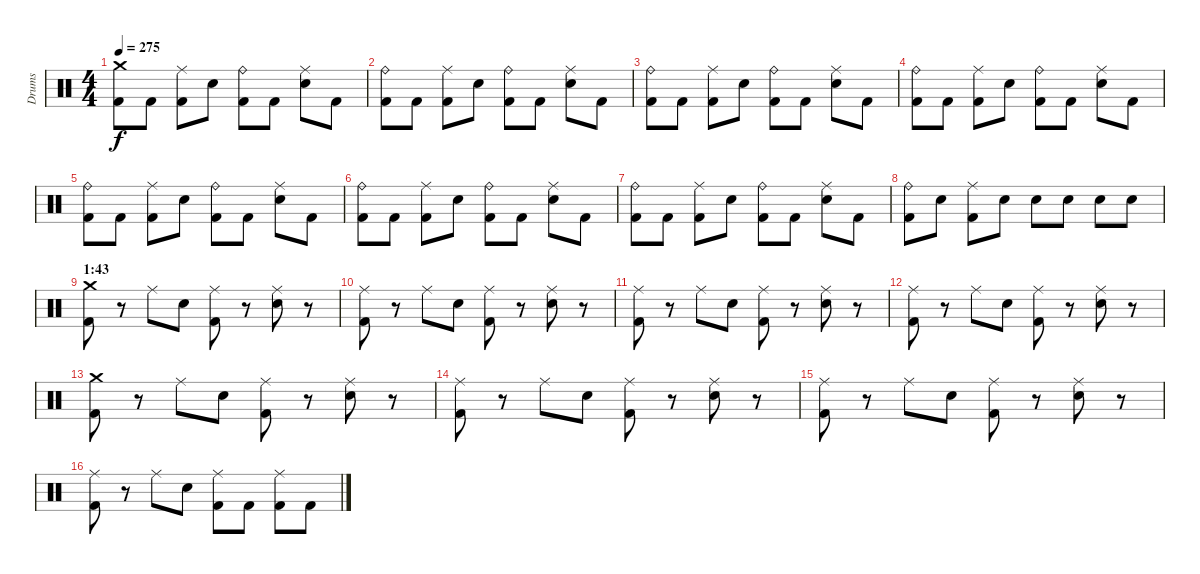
\track ("Drums" "Drums") {instrument percussion}
\staff {score}
\articulation defaults
\ts (4 4)
\tempo 275
\clef neutral
\ks c
("Crash medium (hit)" "Kick (hit) 2").8{dy f} "Kick (hit) 2".8 ("Ride (middle)" "Kick (hit) 2").8 "Electric Snare (hit)".8 ("Ride (bell)" "Kick (hit) 2").8 "Kick (hit) 2".8 ("Ride (middle)" "Electric Snare (hit)").8 "Kick (hit) 2".8 |
("Ride (bell)" "Kick (hit) 2").8 "Kick (hit) 2".8 ("Ride (middle)" "Kick (hit) 2").8 "Electric Snare (hit)".8 ("Ride (bell)" "Kick (hit) 2").8 "Kick (hit) 2".8 ("Ride (middle)" "Electric Snare (hit)").8 "Kick (hit) 2".8 |
("Ride (bell)" "Kick (hit) 2").8 "Kick (hit) 2".8 ("Ride (middle)" "Kick (hit) 2").8 "Electric Snare (hit)".8 ("Ride (bell)" "Kick (hit) 2").8 "Kick (hit) 2".8 ("Ride (middle)" "Electric Snare (hit)").8 "Kick (hit) 2".8 |
("Ride (bell)" "Kick (hit) 2").8 "Kick (hit) 2".8 ("Ride (middle)" "Kick (hit) 2").8 "Electric Snare (hit)".8 ("Ride (bell)" "Kick (hit) 2").8 "Kick (hit) 2".8 ("Ride (middle)" "Electric Snare (hit)").8 "Kick (hit) 2".8 |
("Ride (bell)" "Kick (hit) 2").8 "Kick (hit) 2".8 ("Ride (middle)" "Kick (hit) 2").8 "Electric Snare (hit)".8 ("Ride (bell)" "Kick (hit) 2").8 "Kick (hit) 2".8 ("Ride (middle)" "Electric Snare (hit)").8 "Kick (hit) 2".8 |
("Ride (bell)" "Kick (hit) 2").8 "Kick (hit) 2".8 ("Ride (middle)" "Kick (hit) 2").8 "Electric Snare (hit)".8 ("Ride (bell)" "Kick (hit) 2").8 "Kick (hit) 2".8 ("Ride (middle)" "Electric Snare (hit)").8 "Kick (hit) 2".8 |
("Ride (bell)" "Kick (hit) 2").8 "Kick (hit) 2".8 ("Ride (middle)" "Kick (hit) 2").8 "Electric Snare (hit)".8 ("Ride (bell)" "Kick (hit) 2").8 "Kick (hit) 2".8 ("Ride (middle)" "Electric Snare (hit)").8 "Kick (hit) 2".8 |
("Ride (bell)" "Kick (hit) 2").8 "Electric Snare (hit)".8 ("Ride (middle)" "Kick (hit) 2").8 "Electric Snare (hit)".8 "Electric Snare (hit)".8 "Electric Snare (hit)".8 "Electric Snare (hit)".8 "Electric Snare (hit)".8 |
\section ("" "1:43")
("Crash medium (hit)" "Kick (hit) 2").8 r.8 "Ride (middle)".8 "Electric Snare (hit)".8 ("Ride (middle)" "Kick (hit) 2").8 r.8 ("Ride (middle)" "Electric Snare (hit)").8 r.8 |
("Ride (middle)" "Kick (hit) 2").8 r.8 "Ride (middle)".8 "Electric Snare (hit)".8 ("Ride (middle)" "Kick (hit) 2").8 r.8 ("Ride (middle)" "Electric Snare (hit)").8 r.8 |
("Ride (middle)" "Kick (hit) 2").8 r.8 "Ride (middle)".8 "Electric Snare (hit)".8 ("Ride (middle)" "Kick (hit) 2").8 r.8 ("Ride (middle)" "Electric Snare (hit)").8 r.8 |
("Ride (middle)" "Kick (hit) 2").8 r.8 "Ride (middle)".8 "Electric Snare (hit)".8 ("Ride (middle)" "Kick (hit) 2").8 r.8 ("Ride (middle)" "Electric Snare (hit)").8 r.8 |
("Crash medium (hit)" "Kick (hit) 2").8 r.8 "Ride (middle)".8 "Electric Snare (hit)".8 ("Ride (middle)" "Kick (hit) 2").8 r.8 ("Ride (middle)" "Electric Snare (hit)").8 r.8 |
("Ride (middle)" "Kick (hit) 2").8 r.8 "Ride (middle)".8 "Electric Snare (hit)".8 ("Ride (middle)" "Kick (hit) 2").8 r.8 ("Ride (middle)" "Electric Snare (hit)").8 r.8 |
("Ride (middle)" "Kick (hit) 2").8 r.8 "Ride (middle)".8 "Electric Snare (hit)".8 ("Ride (middle)" "Kick (hit) 2").8 r.8 ("Ride (middle)" "Electric Snare (hit)").8 r.8 |
("Ride (middle)" "Kick (hit) 2").8 r.8 "Ride (middle)".8 "Electric Snare (hit)".8 ("Ride (middle)" "Kick (hit) 2").8 "Kick (hit) 2".8 ("Ride (middle)" "Kick (hit) 2").8 "Kick (hit) 2".8
